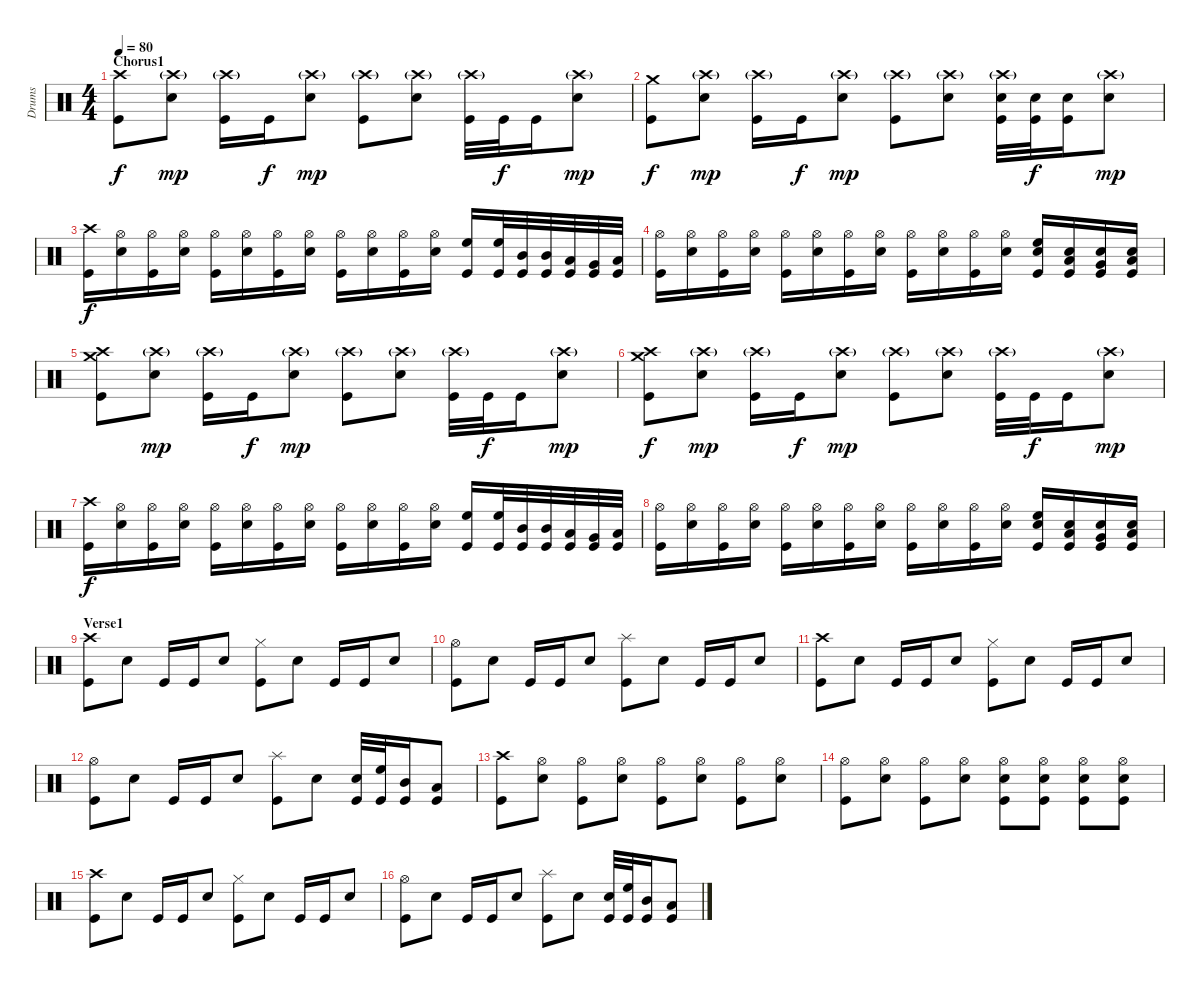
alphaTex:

\track ("Drums" "Drums") {instrument percussion}
\staff {score}
\articulation defaults
\ts (4 4)
\section ("" "Chorus1")
\tempo 80
\clef neutral
\ks c
("Crash high (hit)" "Kick (hit)").8{dy f} ("Crash high (hit)"{g} "Electric Snare (hit)").8{dy mp} ("Crash high (hit)"{g} "Kick (hit)").16 "Kick (hit)".16{dy f} ("Crash high (hit)"{g} "Electric Snare (hit)").8{dy mp} ("Crash high (hit)"{g} "Kick (hit)").8 ("Crash high (hit)"{g} "Electric Snare (hit)").8 ("Crash high (hit)"{g} "Kick (hit)").32 "Kick (hit)".32{dy f} "Kick (hit)".16 ("Crash high (hit)"{g} "Electric Snare (hit)").8{dy mp} |
("Crash medium (hit)" "Kick (hit)").8{dy f} ("Crash high (hit)"{g} "Electric Snare (hit)").8{dy mp} ("Crash high (hit)"{g} "Kick (hit)").16 "Kick (hit)".16{dy f} ("Crash high (hit)"{g} "Electric Snare (hit)").8{dy mp} ("Crash high (hit)"{g} "Kick (hit)").8 ("Crash high (hit)"{g} "Electric Snare (hit)").8 ("Crash high (hit)"{g} "Electric Snare (hit)" "Kick (hit)").32 ("Electric Snare (hit)" "Kick (hit)").32{dy f} ("Electric Snare (hit)" "Kick (hit)").16 ("Crash high (hit)"{g} "Electric Snare (hit)").8{dy mp} |
("Crash high (hit)" "Kick (hit)").16{dy f} ("Hi-Hat (open)" "Electric Snare (hit)").16 ("Hi-Hat (open)" "Kick (hit)").16 ("Hi-Hat (open)" "Electric Snare (hit)").16 ("Hi-Hat (open)" "Kick (hit)").16 ("Hi-Hat (open)" "Electric Snare (hit)").16 ("Hi-Hat (open)" "Kick (hit)").16 ("Hi-Hat (open)" "Electric Snare (hit)").16 ("Hi-Hat (open)" "Kick (hit)").16 ("Hi-Hat (open)" "Electric Snare (hit)").16 ("Hi-Hat (open)" "Kick (hit)").16 ("Hi-Hat (open)" "Electric Snare (hit)").16 ("High Floor Tom (hit)" "Kick (hit)").16 ("High Floor Tom (hit)" "Kick (hit)").32 ("Mid Tom (hit)" "Kick (hit)").32 ("Mid Tom (hit)" "Kick (hit)").32 ("Low Tom (hit)" "Kick (hit)").32 ("Very Low Tom (hit)" "Kick (hit)").32 ("Low Floor Tom (hit)" "Kick (hit)").32 |
("Hi-Hat (open)" "Kick (hit)").16 ("Hi-Hat (open)" "Electric Snare (hit)").16 ("Hi-Hat (open)" "Kick (hit)").16 ("Hi-Hat (open)" "Electric Snare (hit)").16 ("Hi-Hat (open)" "Kick (hit)").16 ("Hi-Hat (open)" "Electric Snare (hit)").16 ("Hi-Hat (open)" "Kick (hit)").16 ("Hi-Hat (open)" "Electric Snare (hit)").16 ("Hi-Hat (open)" "Kick (hit)").16 ("Hi-Hat (open)" "Electric Snare (hit)").16 ("Hi-Hat (open)" "Kick (hit)").16 ("Hi-Hat (open)" "Electric Snare (hit)").16 ("High Floor Tom (hit)" "Electric Snare (hit)" "Kick (hit)").16 ("Low Tom (hit)" "Electric Snare (hit)" "Kick (hit)").16 ("Very Low Tom (hit)" "Electric Snare (hit)" "Kick (hit)").16 ("Low Floor Tom (hit)" "Electric Snare (hit)" "Kick (hit)").16 |
("Crash high (hit)" "Crash medium (hit)" "Kick (hit)").8 ("Crash high (hit)"{g} "Electric Snare (hit)").8{dy mp} ("Crash high (hit)"{g} "Kick (hit)").16 "Kick (hit)".16{dy f} ("Crash high (hit)"{g} "Electric Snare (hit)").8{dy mp} ("Crash high (hit)"{g} "Kick (hit)").8 ("Crash high (hit)"{g} "Electric Snare (hit)").8 ("Crash high (hit)"{g} "Kick (hit)").32 "Kick (hit)".32{dy f} "Kick (hit)".16 ("Crash high (hit)"{g} "Electric Snare (hit)").8{dy mp} |
("Crash high (hit)" "Crash medium (hit)" "Kick (hit)").8{dy f} ("Crash high (hit)"{g} "Electric Snare (hit)").8{dy mp} ("Crash high (hit)"{g} "Kick (hit)").16 "Kick (hit)".16{dy f} ("Crash high (hit)"{g} "Electric Snare (hit)").8{dy mp} ("Crash high (hit)"{g} "Kick (hit)").8 ("Crash high (hit)"{g} "Electric Snare (hit)").8 ("Crash high (hit)"{g} "Kick (hit)").32 "Kick (hit)".32{dy f} "Kick (hit)".16 ("Crash high (hit)"{g} "Electric Snare (hit)").8{dy mp} |
("Crash high (hit)" "Kick (hit)").16{dy f} ("Hi-Hat (open)" "Electric Snare (hit)").16 ("Hi-Hat (open)" "Kick (hit)").16 ("Hi-Hat (open)" "Electric Snare (hit)").16 ("Hi-Hat (open)" "Kick (hit)").16 ("Hi-Hat (open)" "Electric Snare (hit)").16 ("Hi-Hat (open)" "Kick (hit)").16 ("Hi-Hat (open)" "Electric Snare (hit)").16 ("Hi-Hat (open)" "Kick (hit)").16 ("Hi-Hat (open)" "Electric Snare (hit)").16 ("Hi-Hat (open)" "Kick (hit)").16 ("Hi-Hat (open)" "Electric Snare (hit)").16 ("High Floor Tom (hit)" "Kick (hit)").16 ("High Floor Tom (hit)" "Kick (hit)").32 ("Mid Tom (hit)" "Kick (hit)").32 ("Mid Tom (hit)" "Kick (hit)").32 ("Low Tom (hit)" "Kick (hit)").32 ("Very Low Tom (hit)" "Kick (hit)").32 ("Low Floor Tom (hit)" "Kick (hit)").32 |
("Hi-Hat (open)" "Kick (hit)").16 ("Hi-Hat (open)" "Electric Snare (hit)").16 ("Hi-Hat (open)" "Kick (hit)").16 ("Hi-Hat (open)" "Electric Snare (hit)").16 ("Hi-Hat (open)" "Kick (hit)").16 ("Hi-Hat (open)" "Electric Snare (hit)").16 ("Hi-Hat (open)" "Kick (hit)").16 ("Hi-Hat (open)" "Electric Snare (hit)").16 ("Hi-Hat (open)" "Kick (hit)").16 ("Hi-Hat (open)" "Electric Snare (hit)").16 ("Hi-Hat (open)" "Kick (hit)").16 ("Hi-Hat (open)" "Electric Snare (hit)").16 ("High Floor Tom (hit)" "Electric Snare (hit)" "Kick (hit)").16 ("Low Tom (hit)" "Electric Snare (hit)" "Kick (hit)").16 ("Very Low Tom (hit)" "Electric Snare (hit)" "Kick (hit)").16 ("Low Floor Tom (hit)" "Electric Snare (hit)" "Kick (hit)").16 |
\section ("" "Verse1")
("Crash high (hit)" "Kick (hit)").8 "Electric Snare (hit)".8 "Kick (hit)".16 "Kick (hit)".16 "Electric Snare (hit)".8 ("Hi-Hat (closed)" "Kick (hit)").8 "Electric Snare (hit)".8 "Kick (hit)".16 "Kick (hit)".16 "Electric Snare (hit)".8 |
("Hi-Hat (open)" "Kick (hit)").8 "Electric Snare (hit)".8 "Kick (hit)".16 "Kick (hit)".16 "Electric Snare (hit)".8 ("Splash (hit)" "Kick (hit)").8 "Electric Snare (hit)".8 "Kick (hit)".16 "Kick (hit)".16 "Electric Snare (hit)".8 |
("Crash high (hit)" "Kick (hit)").8 "Electric Snare (hit)".8 "Kick (hit)".16 "Kick (hit)".16 "Electric Snare (hit)".8 ("Hi-Hat (closed)" "Kick (hit)").8 "Electric Snare (hit)".8 "Kick (hit)".16 "Kick (hit)".16 "Electric Snare (hit)".8 |
("Hi-Hat (open)" "Kick (hit)").8 "Electric Snare (hit)".8 "Kick (hit)".16 "Kick (hit)".16 "Electric Snare (hit)".8 ("Splash (hit)" "Kick (hit)").8 "Electric Snare (hit)".8 ("Electric Snare (hit)" "Kick (hit)").32 ("High Floor Tom (hit)" "Kick (hit)").32 ("Mid Tom (hit)" "Kick (hit)").16 ("Low Tom (hit)" "Kick (hit)").8 |
("Crash high (hit)" "Kick (hit)").8 ("Hi-Hat (open)" "Electric Snare (hit)").8 ("Hi-Hat (open)" "Kick (hit)").8 ("Hi-Hat (open)" "Electric Snare (hit)").8 ("Hi-Hat (open)" "Kick (hit)").8 ("Hi-Hat (open)" "Electric Snare (hit)").8 ("Hi-Hat (open)" "Kick (hit)").8 ("Hi-Hat (open)" "Electric Snare (hit)").8 |
("Hi-Hat (open)" "Kick (hit)").8 ("Hi-Hat (open)" "Electric Snare (hit)").8 ("Hi-Hat (open)" "Kick (hit)").8 ("Hi-Hat (open)" "Electric Snare (hit)").8 ("Hi-Hat (open)" "Electric Snare (hit)" "Kick (hit)").8 ("Hi-Hat (open)" "Electric Snare (hit)" "Kick (hit)").8 ("Hi-Hat (open)" "Electric Snare (hit)" "Kick (hit)").8 ("Hi-Hat (open)" "Electric Snare (hit)" "Kick (hit)").8 |
("Crash high (hit)" "Kick (hit)").8 "Electric Snare (hit)".8 "Kick (hit)".16 "Kick (hit)".16 "Electric Snare (hit)".8 ("Hi-Hat (closed)" "Kick (hit)").8 "Electric Snare (hit)".8 "Kick (hit)".16 "Kick (hit)".16 "Electric Snare (hit)".8 |
("Hi-Hat (open)" "Kick (hit)").8 "Electric Snare (hit)".8 "Kick (hit)".16 "Kick (hit)".16 "Electric Snare (hit)".8 ("Splash (hit)" "Kick (hit)").8 "Electric Snare (hit)".8 ("Electric Snare (hit)" "Kick (hit)").32 ("High Floor Tom (hit)" "Kick (hit)").32 ("Mid Tom (hit)" "Kick (hit)").16 ("Low Tom (hit)" "Kick (hit)").8
